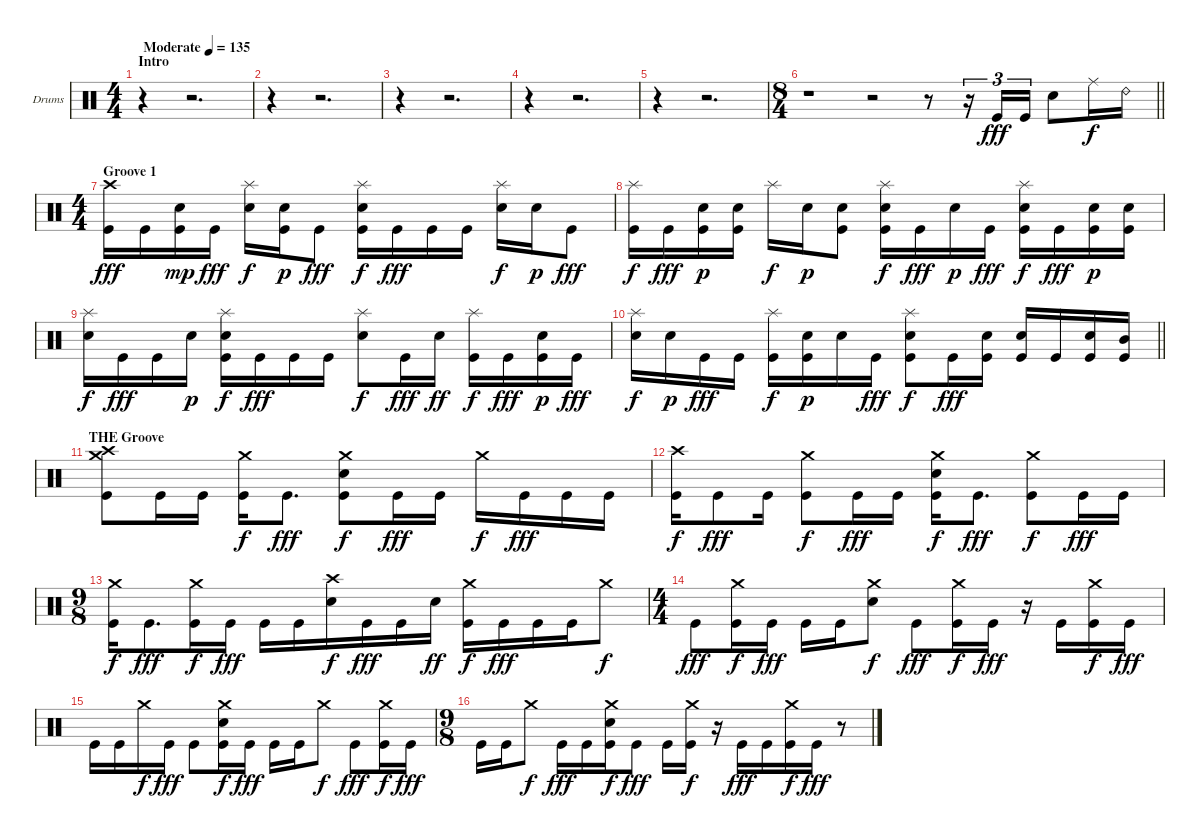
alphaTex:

\bracketExtendMode groupsimilarinstruments
\firstSystemTrackNameOrientation horizontal
\otherSystemsTrackNameOrientation horizontal
\track ("Drumkit" "Drums") {instrument percussion}
\staff {score}
\articulation defaults
\ts (4 4)
\beaming (8 2 2 2 2)
\section ("" "Intro")
\tempo (135 "Moderate")
\clef neutral
\ks c
r.4{dy fff} r.2{d} |
r.4 r.2{d} |
r.4 r.2{d} |
r.4 r.2{d} |
r.4 r.2{d} |
\ts (8 4)
\beaming (8 4 4 4 4)
\barLineRight lightlight
r.1 r.2 r.8 r.16{tu (3 2)} "Kick (hit)".16{tu (3 2)} "Kick (hit)".16{tu (3 2)} "Snare (hit) 2".8 "Ride (middle)".16{dy f} "Ride (bell) 2".16 |
\ts (4 4)
\beaming (8 2 2 2 2)
\section ("" "Groove 1")
("Crash high (hit)" "Kick (hit)").16{dy fff} "Kick (hit)".16 ("Snare (hit) 2" "Kick (hit)").16{dy mp} "Kick (hit)".16{dy fff} ("Splash (hit)" "Snare (hit) 2").16{dy f} ("Snare (hit) 2" "Kick (hit)").16{dy p} "Kick (hit)".8{dy fff} ("Splash (hit)" "Snare (hit) 2" "Kick (hit)").16{dy f} "Kick (hit)".16{dy fff} "Kick (hit)".16 "Kick (hit)".16 ("Splash (hit)" "Snare (hit) 2").16{dy f} "Snare (hit) 2".16{dy p} "Kick (hit)".8{dy fff} |
("Splash (hit)" "Kick (hit)").16{dy f} "Kick (hit)".16{dy fff} ("Snare (hit) 2" "Kick (hit)").16{dy p} ("Snare (hit) 2" "Kick (hit)").16 "Splash (hit)".16{dy f} "Snare (hit) 2".16{dy p} ("Snare (hit) 2" "Kick (hit)").8 ("Splash (hit)" "Snare (hit) 2" "Kick (hit)").16{dy f} "Kick (hit)".16{dy fff} "Snare (hit) 2".16{dy p} "Kick (hit)".16{dy fff} ("Splash (hit)" "Snare (hit) 2" "Kick (hit)").16{dy f} "Kick (hit)".16{dy fff} ("Snare (hit) 2" "Kick (hit)").16{dy p} ("Snare (hit) 2" "Kick (hit)").16 |
("Splash (hit)" "Snare (hit) 2").16{dy f} "Kick (hit)".16{dy fff} "Kick (hit)".16 "Snare (hit) 2".16{dy p} ("Splash (hit)" "Snare (hit) 2" "Kick (hit)").16{dy f} "Kick (hit)".16{dy fff} "Kick (hit)".16 "Kick (hit)".16 ("Splash (hit)" "Snare (hit) 2").8{dy f} "Kick (hit)".16{dy fff} "Snare (hit) 2".16{dy ff} ("Splash (hit)" "Kick (hit)").16{dy f} "Kick (hit)".16{dy fff} ("Snare (hit) 2" "Kick (hit)").16{dy p} "Kick (hit)".16{dy fff} |
\barLineRight lightlight
("Splash (hit)" "Snare (hit) 2").16{dy f} "Snare (hit) 2".16{dy p} "Kick (hit)".16{dy fff} "Kick (hit)".16 ("Splash (hit)" "Kick (hit)").16{dy f} ("Snare (hit) 2" "Kick (hit)").16{dy p} "Snare (hit) 2".16 "Kick (hit)".16{dy fff} ("Splash (hit)" "Snare (hit) 2" "Kick (hit)").8{dy f} "Kick (hit)".16{dy fff} ("Snare (hit) 2" "Kick (hit)").16 ("Snare (hit) 2" "Kick (hit)").16 "Kick (hit)".16 ("Snare (hit) 2" "Kick (hit)").16 ("Mid Tom (hit)" "Kick (hit)").16 |
\section ("" "THE Groove")
("Crash medium (hit)" "Crash high (hit)" "Kick (hit)").8 "Kick (hit)".16 "Kick (hit)".16 ("Crash medium (hit)" "Kick (hit)").16{dy f} "Kick (hit)".8{d dy fff} ("Crash medium (hit)" "Snare (hit) 2" "Kick (hit)").8{dy f} "Kick (hit)".16{dy fff} "Kick (hit)".16 "Crash medium (hit)".16{dy f} "Kick (hit)".16{dy fff} "Kick (hit)".16 "Kick (hit)".16 |
("Crash high (hit)" "Kick (hit)").16{dy f} "Kick (hit)".8{dy fff} "Kick (hit)".16 ("Crash medium (hit)" "Kick (hit)").8{dy f} "Kick (hit)".16{dy fff} "Kick (hit)".16 ("Crash medium (hit)" "Snare (hit) 2" "Kick (hit)").16{dy f} "Kick (hit)".8{d dy fff} ("Crash medium (hit)" "Kick (hit)").8{dy f} "Kick (hit)".16{dy fff} "Kick (hit)".16 |
\ts (9 8)
\beaming (8 3 3 3)
("Crash medium (hit)" "Kick (hit)").16{dy f} "Kick (hit)".8{d dy fff} ("Crash medium (hit)" "Kick (hit)").16{dy f} "Kick (hit)".16{dy fff} "Kick (hit)".16 "Kick (hit)".16 ("Crash high (hit)" "Snare (hit) 2").16{dy f} "Kick (hit)".16{dy fff} "Kick (hit)".16 "Snare (hit) 2".16{dy ff} ("Crash medium (hit)" "Kick (hit)").16{dy f} "Kick (hit)".16{dy fff} "Kick (hit)".16 "Kick (hit)".16 "Crash medium (hit)".8{dy f} |
\ts (4 4)
\beaming (8 2 2 2 2)
"Kick (hit)".8{dy fff} ("Crash medium (hit)" "Kick (hit)").16{dy f} "Kick (hit)".16{dy fff} "Kick (hit)".16 "Kick (hit)".16 ("Crash medium (hit)" "Snare (hit) 2").8{dy f} "Kick (hit)".8{dy fff} ("Crash medium (hit)" "Kick (hit)").16{dy f} "Kick (hit)".16{dy fff} r.16 "Kick (hit)".16 ("Crash medium (hit)" "Kick (hit)").16{dy f} "Kick (hit)".16{dy fff} |
"Kick (hit)".16 "Kick (hit)".16 "Crash medium (hit)".16{dy f} "Kick (hit)".16{dy fff} "Kick (hit)".8 ("Crash medium (hit)" "Snare (hit) 2" "Kick (hit)").16{dy f} "Kick (hit)".16{dy fff} "Kick (hit)".16 "Kick (hit)".16 "Crash medium (hit)".8{dy f} "Kick (hit)".8{dy fff} ("Crash medium (hit)" "Kick (hit)").16{dy f} "Kick (hit)".16{dy fff} |
\ts (9 8)
\beaming (8 2 2 2 3)
"Kick (hit)".16 "Kick (hit)".16 "Crash medium (hit)".8{dy f} "Kick (hit)".16{dy fff} "Kick (hit)".16 ("Crash medium (hit)" "Snare (hit) 2" "Kick (hit)").16{dy f} "Kick (hit)".8{dy fff} "Kick (hit)".16 ("Crash medium (hit)" "Kick (hit)").16{dy f} r.16 "Kick (hit)".16{dy fff} "Kick (hit)".16 ("Crash medium (hit)" "Kick (hit)").16{dy f} "Kick (hit)".16{dy fff} r.8
